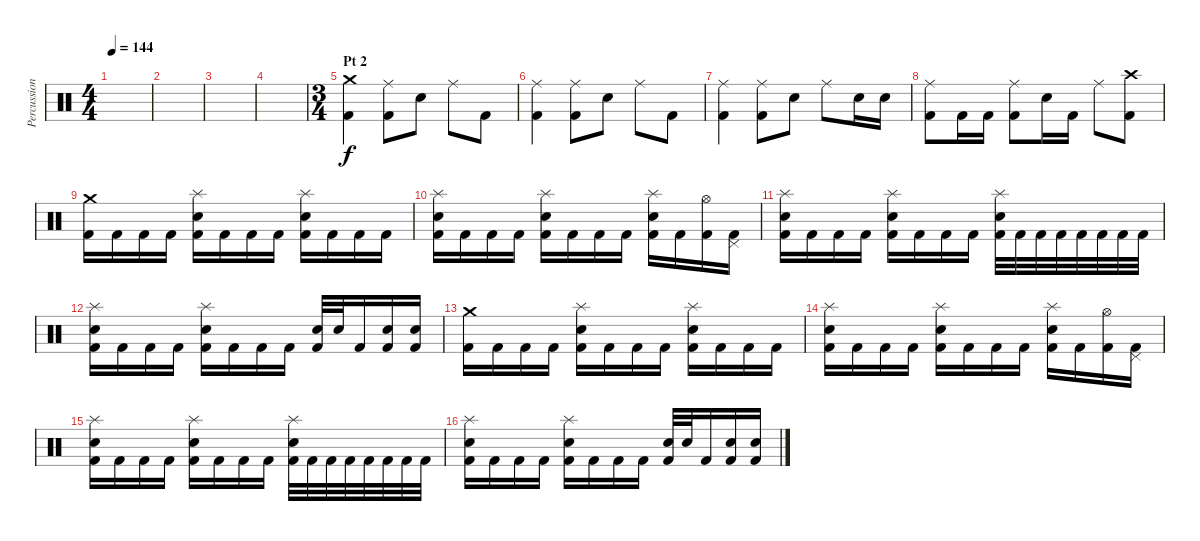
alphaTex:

\track ("Percussion" "Percussion") {instrument percussion}
\staff {score}
\articulation defaults
\ts (4 4)
\tempo 144
\clef neutral
\ks c
|
|
|
|
\ts (3 4)
\section ("" "Pt 2")
("Crash medium (hit)" "Kick (hit) 2").4 ("Ride (middle)" "Kick (hit) 2").8 "Electric Snare (hit)".8 "Ride (middle)".8 "Kick (hit) 2".8 |
("Ride (middle)" "Kick (hit) 2").4 ("Ride (middle)" "Kick (hit) 2").8 "Electric Snare (hit)".8 "Ride (middle)".8 "Kick (hit) 2".8 |
("Ride (middle)" "Kick (hit) 2").4 ("Ride (middle)" "Kick (hit) 2").8 "Electric Snare (hit)".8 "Ride (middle)".8 "Electric Snare (hit)".16 "Electric Snare (hit)".16 |
("Ride (middle)" "Kick (hit) 2").8 "Kick (hit) 2".16 "Kick (hit) 2".16 ("Ride (middle)" "Kick (hit) 2").8 "Electric Snare (hit)".16 "Kick (hit) 2".16 "Ride (middle)".8 ("Crash high (hit)" "Kick (hit) 2").8 |
("Crash medium (hit)" "Kick (hit) 2").16 "Kick (hit) 2".16 "Kick (hit) 2".16 "Kick (hit) 2".16 ("Splash (hit)" "Electric Snare (hit)" "Kick (hit) 2").16 "Kick (hit) 2".16 "Kick (hit) 2".16 "Kick (hit) 2".16 ("Splash (hit)" "Electric Snare (hit)" "Kick (hit) 2").16 "Kick (hit) 2".16 "Kick (hit) 2".16 "Kick (hit) 2".16 |
("Splash (hit)" "Electric Snare (hit)" "Kick (hit) 2").16 "Kick (hit) 2".16 "Kick (hit) 2".16 "Kick (hit) 2".16 ("Splash (hit)" "Electric Snare (hit)" "Kick (hit) 2").16 "Kick (hit) 2".16 "Kick (hit) 2".16 "Kick (hit) 2".16 ("Splash (hit)" "Electric Snare (hit)" "Kick (hit) 2").16 "Kick (hit) 2".16 ("Hi-Hat (open)" "Kick (hit) 2").16 ("Pedal Hi-Hat (hit)" "Kick (hit) 2").16 |
("Splash (hit)" "Electric Snare (hit)" "Kick (hit) 2").16 "Kick (hit) 2".16 "Kick (hit) 2".16 "Kick (hit) 2".16 ("Splash (hit)" "Electric Snare (hit)" "Kick (hit) 2").16 "Kick (hit) 2".16 "Kick (hit) 2".16 "Kick (hit) 2".16 ("Splash (hit)" "Electric Snare (hit)" "Kick (hit) 2").32 "Kick (hit) 2".32 "Kick (hit) 2".32 "Kick (hit) 2".32 "Kick (hit) 2".32 "Kick (hit) 2".32 "Kick (hit) 2".32 "Kick (hit) 2".32 |
("Splash (hit)" "Electric Snare (hit)" "Kick (hit) 2").16 "Kick (hit) 2".16 "Kick (hit) 2".16 "Kick (hit) 2".16 ("Splash (hit)" "Electric Snare (hit)" "Kick (hit) 2").16 "Kick (hit) 2".16 "Kick (hit) 2".16 "Kick (hit) 2".16 ("Electric Snare (hit)" "Kick (hit) 2").32 "Electric Snare (hit)".32 "Kick (hit) 2".16 ("Electric Snare (hit)" "Kick (hit) 2").16 ("Electric Snare (hit)" "Kick (hit) 2").16 |
("Crash medium (hit)" "Kick (hit) 2").16 "Kick (hit) 2".16 "Kick (hit) 2".16 "Kick (hit) 2".16 ("Splash (hit)" "Electric Snare (hit)" "Kick (hit) 2").16 "Kick (hit) 2".16 "Kick (hit) 2".16 "Kick (hit) 2".16 ("Splash (hit)" "Electric Snare (hit)" "Kick (hit) 2").16 "Kick (hit) 2".16 "Kick (hit) 2".16 "Kick (hit) 2".16 |
("Splash (hit)" "Electric Snare (hit)" "Kick (hit) 2").16 "Kick (hit) 2".16 "Kick (hit) 2".16 "Kick (hit) 2".16 ("Splash (hit)" "Electric Snare (hit)" "Kick (hit) 2").16 "Kick (hit) 2".16 "Kick (hit) 2".16 "Kick (hit) 2".16 ("Splash (hit)" "Electric Snare (hit)" "Kick (hit) 2").16 "Kick (hit) 2".16 ("Hi-Hat (open)" "Kick (hit) 2").16 ("Pedal Hi-Hat (hit)" "Kick (hit) 2").16 |
("Splash (hit)" "Electric Snare (hit)" "Kick (hit) 2").16 "Kick (hit) 2".16 "Kick (hit) 2".16 "Kick (hit) 2".16 ("Splash (hit)" "Electric Snare (hit)" "Kick (hit) 2").16 "Kick (hit) 2".16 "Kick (hit) 2".16 "Kick (hit) 2".16 ("Splash (hit)" "Electric Snare (hit)" "Kick (hit) 2").32 "Kick (hit) 2".32 "Kick (hit) 2".32 "Kick (hit) 2".32 "Kick (hit) 2".32 "Kick (hit) 2".32 "Kick (hit) 2".32 "Kick (hit) 2".32 |
("Splash (hit)" "Electric Snare (hit)" "Kick (hit) 2").16 "Kick (hit) 2".16 "Kick (hit) 2".16 "Kick (hit) 2".16 ("Splash (hit)" "Electric Snare (hit)" "Kick (hit) 2").16 "Kick (hit) 2".16 "Kick (hit) 2".16 "Kick (hit) 2".16 ("Electric Snare (hit)" "Kick (hit) 2").32 "Electric Snare (hit)".32 "Kick (hit) 2".16 ("Electric Snare (hit)" "Kick (hit) 2").16 ("Electric Snare (hit)" "Kick (hit) 2").16
